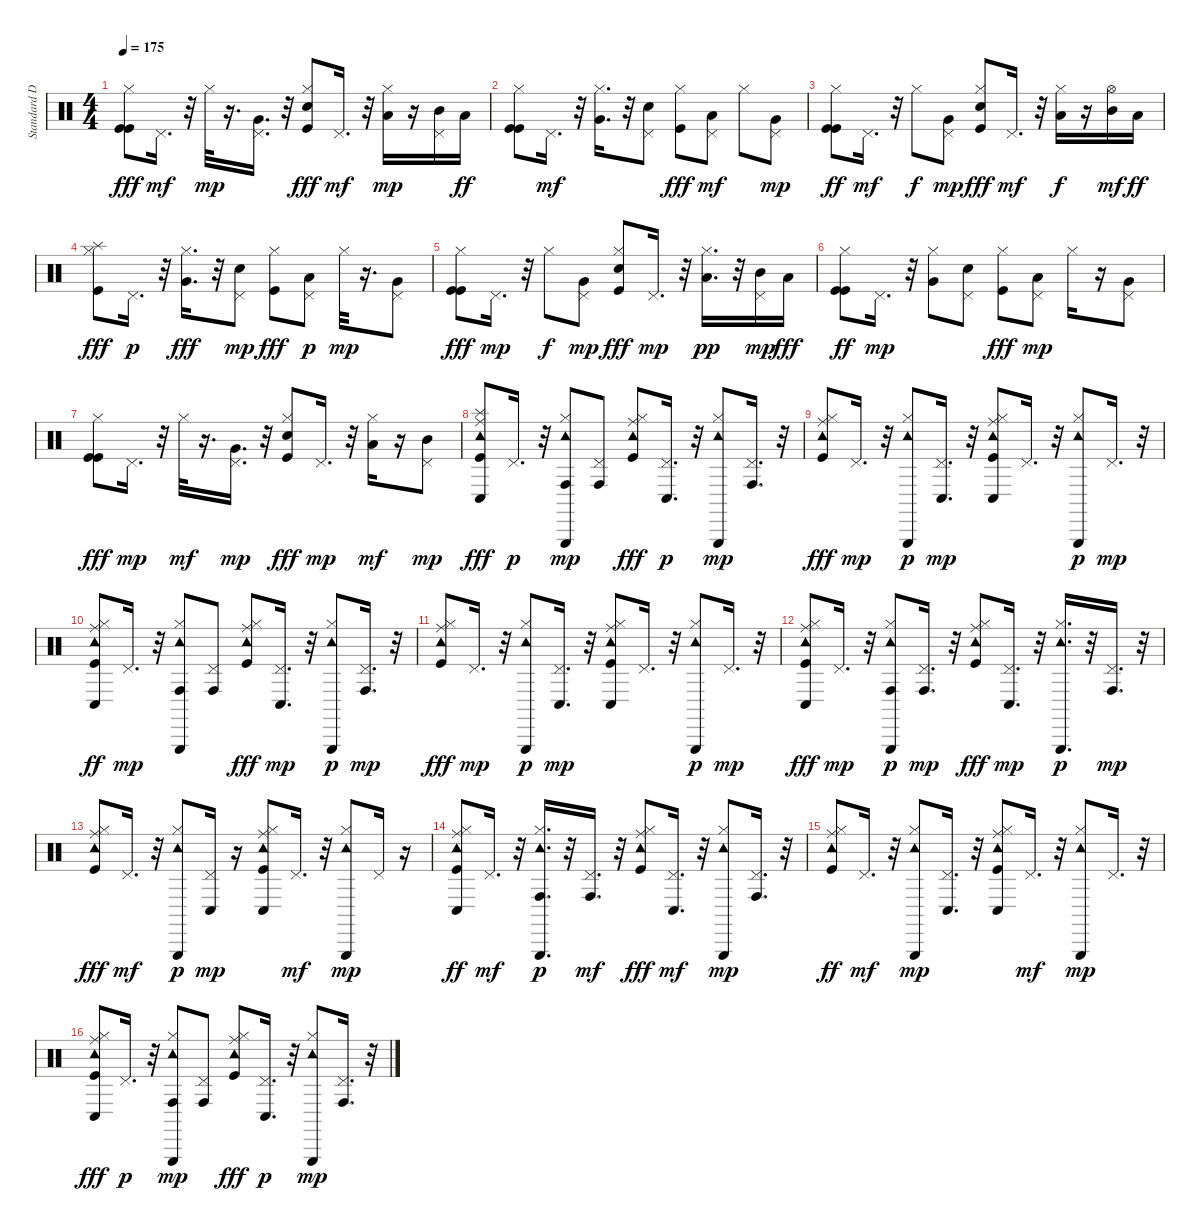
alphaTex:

\track ("Standard Drums" "Standard D") {instrument percussion}
\staff {score}
\articulation defaults
\ts (4 4)
\tempo 175
\clef neutral
\ks c
("Kick (hit)" "Kick (hit)" "Hi-Hat (closed)").8{dy fff} "Pedal Hi-Hat (hit)".16{d dy mf} r.32 "Hi-Hat (closed)".32{dy mp} r.16{d} ("Very Low Tom (hit)" "Pedal Hi-Hat (hit)").16{d} r.32 ("Snare (hit) 2" "Kick (hit)" "Hi-Hat (closed)").8{dy fff} "Pedal Hi-Hat (hit)".16{d dy mf} r.32 ("Low Tom (hit)" "Hi-Hat (closed)").16{dy mp} r.16 ("Mid Tom (hit)" "Pedal Hi-Hat (hit)").16 "Low Tom (hit)".16{dy ff} |
("Kick (hit)" "Kick (hit)" "Hi-Hat (closed)").8 "Pedal Hi-Hat (hit)".16{d dy mf} r.32 ("Very Low Tom (hit)" "Hi-Hat (closed)").16{d} r.32 ("Snare (hit) 2" "Pedal Hi-Hat (hit)").8 ("Kick (hit)" "Hi-Hat (closed)").8{dy fff} ("Low Tom (hit)" "Pedal Hi-Hat (hit)").8{dy mf} "Hi-Hat (closed)".8 ("Very Low Tom (hit)" "Pedal Hi-Hat (hit)").8{dy mp} |
("Kick (hit)" "Kick (hit)" "Hi-Hat (closed)").8{dy ff} "Pedal Hi-Hat (hit)".16{d dy mf} r.32 "Hi-Hat (closed)".8{dy f} ("Very Low Tom (hit)" "Pedal Hi-Hat (hit)").8{dy mp} ("Snare (hit) 2" "Kick (hit)" "Hi-Hat (closed)").8{dy fff} "Pedal Hi-Hat (hit)".16{d dy mf} r.32 ("Low Tom (hit)" "Hi-Hat (closed)").16{dy f} r.16 ("Mid Tom (hit)" "Hi-Hat (open)").16{dy mf} "Low Tom (hit)".16{dy ff} |
("Kick (hit)" "Splash (hit)" "Hi-Hat (closed)").8{dy fff} "Pedal Hi-Hat (hit)".16{d dy p} r.32 ("Very Low Tom (hit)" "Hi-Hat (closed)").16{d dy fff} r.32 ("Snare (hit) 2" "Pedal Hi-Hat (hit)").8{dy mp} ("Kick (hit)" "Hi-Hat (closed)").8{dy fff} ("Low Tom (hit)" "Pedal Hi-Hat (hit)").8{dy p} "Hi-Hat (closed)".32{dy mp} r.16{d} ("Very Low Tom (hit)" "Pedal Hi-Hat (hit)").8 |
("Kick (hit)" "Kick (hit)" "Hi-Hat (closed)").8{dy fff} "Pedal Hi-Hat (hit)".16{d dy mp} r.32 "Hi-Hat (closed)".8{dy f} ("Very Low Tom (hit)" "Pedal Hi-Hat (hit)").8{dy mp} ("Snare (hit) 2" "Kick (hit)" "Hi-Hat (closed)").8{dy fff} "Pedal Hi-Hat (hit)".16{d dy mp} r.32 ("Low Tom (hit)" "Hi-Hat (closed)").16{d dy pp} r.32 ("Mid Tom (hit)" "Pedal Hi-Hat (hit)").16{dy mp} "Low Tom (hit)".16{dy fff} |
("Kick (hit)" "Kick (hit)" "Hi-Hat (closed)").8{dy ff} "Pedal Hi-Hat (hit)".16{d dy mp} r.32 ("Very Low Tom (hit)" "Hi-Hat (closed)").8 ("Snare (hit) 2" "Pedal Hi-Hat (hit)").8 ("Kick (hit)" "Hi-Hat (closed)").8{dy fff} ("Low Tom (hit)" "Pedal Hi-Hat (hit)").8{dy mp} "Hi-Hat (closed)".16 r.16 ("Very Low Tom (hit)" "Pedal Hi-Hat (hit)").8 |
("Kick (hit)" "Kick (hit)" "Hi-Hat (closed)").8{dy fff} "Pedal Hi-Hat (hit)".16{d dy mp} r.32 "Hi-Hat (closed)".32{dy mf} r.16{d} ("Very Low Tom (hit)" "Pedal Hi-Hat (hit)").16{d dy mp} r.32 ("Snare (hit) 2" "Kick (hit)" "Hi-Hat (closed)").8{dy fff} "Pedal Hi-Hat (hit)".16{d dy mp} r.32 ("Low Tom (hit)" "Hi-Hat (closed)").16{dy mf} r.16 ("Mid Tom (hit)" "Pedal Hi-Hat (hit)").8{dy mp} |
("Kick (hit)" "Splash (hit)" "Tambourine (hit)" "Conga low (hit)" "Ride (middle)").8{dy fff} "Pedal Hi-Hat (hit)".16{d dy p} r.32 ("Hi-Hat (closed)" "Triangle (hit)" "Tambourine (hit)" "Conga high (hit)").8{dy mp} ("Pedal Hi-Hat (hit)" "Conga high (hit)").8 ("Kick (hit)" "Hi-Hat (closed)" "Tambourine (hit)" "Ride (middle)").8{dy fff} ("Pedal Hi-Hat (hit)" "Conga low (hit)").16{d dy p} r.32 ("Hi-Hat (closed)" "Triangle (hit)" "Tambourine (hit)").8{dy mp} ("Pedal Hi-Hat (hit)" "Conga high (hit)").16{d} r.32 |
("Kick (hit)" "Hi-Hat (closed)" "Tambourine (hit)" "Ride (middle)").8{dy fff} "Pedal Hi-Hat (hit)".16{d dy mp} r.32 ("Hi-Hat (closed)" "Triangle (hit)" "Tambourine (hit)").8{dy p} ("Pedal Hi-Hat (hit)" "Conga low (hit)").16{d dy mp} r.32 ("Kick (hit)" "Hi-Hat (closed)" "Tambourine (hit)" "Conga low (hit)" "Ride (middle)").8 "Pedal Hi-Hat (hit)".16{d} r.32 ("Hi-Hat (closed)" "Triangle (hit)" "Tambourine (hit)").8{dy p} "Pedal Hi-Hat (hit)".16{d dy mp} r.32 |
("Kick (hit)" "Hi-Hat (closed)" "Tambourine (hit)" "Conga low (hit)" "Ride (middle)").8{dy ff} "Pedal Hi-Hat (hit)".16{d dy mp} r.32 ("Hi-Hat (closed)" "Triangle (hit)" "Tambourine (hit)" "Conga high (hit)").8 ("Pedal Hi-Hat (hit)" "Conga high (hit)").8 ("Kick (hit)" "Hi-Hat (closed)" "Tambourine (hit)" "Ride (middle)").8{dy fff} ("Pedal Hi-Hat (hit)" "Conga low (hit)").16{d dy mp} r.32 ("Hi-Hat (closed)" "Triangle (hit)" "Tambourine (hit)").8{dy p} ("Pedal Hi-Hat (hit)" "Conga high (hit)").16{d dy mp} r.32 |
("Kick (hit)" "Hi-Hat (closed)" "Tambourine (hit)" "Ride (middle)").8{dy fff} "Pedal Hi-Hat (hit)".16{d dy mp} r.32 ("Hi-Hat (closed)" "Triangle (hit)" "Tambourine (hit)").8{dy p} ("Pedal Hi-Hat (hit)" "Conga low (hit)").16{d dy mp} r.32 ("Kick (hit)" "Hi-Hat (closed)" "Tambourine (hit)" "Conga low (hit)" "Ride (middle)").8 "Pedal Hi-Hat (hit)".16{d} r.32 ("Hi-Hat (closed)" "Triangle (hit)" "Tambourine (hit)").8{dy p} "Pedal Hi-Hat (hit)".16{d dy mp} r.32 |
("Kick (hit)" "Hi-Hat (closed)" "Tambourine (hit)" "Conga low (hit)" "Ride (middle)").8{dy fff} "Pedal Hi-Hat (hit)".16{d dy mp} r.32 ("Hi-Hat (closed)" "Triangle (hit)" "Tambourine (hit)" "Conga high (hit)").8{dy p} ("Pedal Hi-Hat (hit)" "Conga high (hit)").16{d dy mp} r.32 ("Kick (hit)" "Hi-Hat (closed)" "Tambourine (hit)" "Ride (middle)").8{dy fff} ("Pedal Hi-Hat (hit)" "Conga low (hit)").16{d dy mp} r.32 ("Hi-Hat (closed)" "Triangle (hit)" "Tambourine (hit)").16{d dy p} r.32 ("Pedal Hi-Hat (hit)" "Conga high (hit)").16{d dy mp} r.32 |
("Kick (hit)" "Hi-Hat (closed)" "Tambourine (hit)" "Ride (middle)").8{dy fff} "Pedal Hi-Hat (hit)".16{d dy mf} r.32 ("Hi-Hat (closed)" "Triangle (hit)" "Tambourine (hit)").8{dy p} ("Pedal Hi-Hat (hit)" "Conga low (hit)").16{dy mp} r.16 ("Kick (hit)" "Hi-Hat (closed)" "Tambourine (hit)" "Conga low (hit)" "Ride (middle)").8 "Pedal Hi-Hat (hit)".16{d dy mf} r.32 ("Hi-Hat (closed)" "Triangle (hit)" "Tambourine (hit)").8{dy mp} "Pedal Hi-Hat (hit)".16 r.16 |
("Kick (hit)" "Hi-Hat (closed)" "Tambourine (hit)" "Conga low (hit)" "Ride (middle)").8{dy ff} "Pedal Hi-Hat (hit)".16{d dy mf} r.32 ("Hi-Hat (closed)" "Triangle (hit)" "Tambourine (hit)" "Conga high (hit)").16{d dy p} r.32 ("Pedal Hi-Hat (hit)" "Conga high (hit)").16{d dy mf} r.32 ("Kick (hit)" "Hi-Hat (closed)" "Tambourine (hit)" "Ride (middle)").8{dy fff} ("Pedal Hi-Hat (hit)" "Conga low (hit)").16{d dy mf} r.32 ("Hi-Hat (closed)" "Triangle (hit)" "Tambourine (hit)").8{dy mp} ("Pedal Hi-Hat (hit)" "Conga high (hit)").16{d} r.32 |
("Kick (hit)" "Hi-Hat (closed)" "Tambourine (hit)" "Ride (middle)").8{dy ff} "Pedal Hi-Hat (hit)".16{d dy mf} r.32 ("Hi-Hat (closed)" "Triangle (hit)" "Tambourine (hit)").8{dy mp} ("Pedal Hi-Hat (hit)" "Conga low (hit)").16{d} r.32 ("Kick (hit)" "Hi-Hat (closed)" "Tambourine (hit)" "Conga low (hit)" "Ride (middle)").8 "Pedal Hi-Hat (hit)".16{d dy mf} r.32 ("Hi-Hat (closed)" "Triangle (hit)" "Tambourine (hit)").8{dy mp} "Pedal Hi-Hat (hit)".16{d} r.32 |
("Kick (hit)" "Hi-Hat (closed)" "Tambourine (hit)" "Conga low (hit)" "Ride (middle)").8{dy fff} "Pedal Hi-Hat (hit)".16{d dy p} r.32 ("Hi-Hat (closed)" "Triangle (hit)" "Tambourine (hit)" "Conga high (hit)").8{dy mp} ("Pedal Hi-Hat (hit)" "Conga high (hit)").8 ("Kick (hit)" "Hi-Hat (closed)" "Tambourine (hit)" "Ride (middle)").8{dy fff} ("Pedal Hi-Hat (hit)" "Conga low (hit)").16{d dy p} r.32 ("Hi-Hat (closed)" "Triangle (hit)" "Tambourine (hit)").8{dy mp} ("Pedal Hi-Hat (hit)" "Conga high (hit)").16{d} r.32
